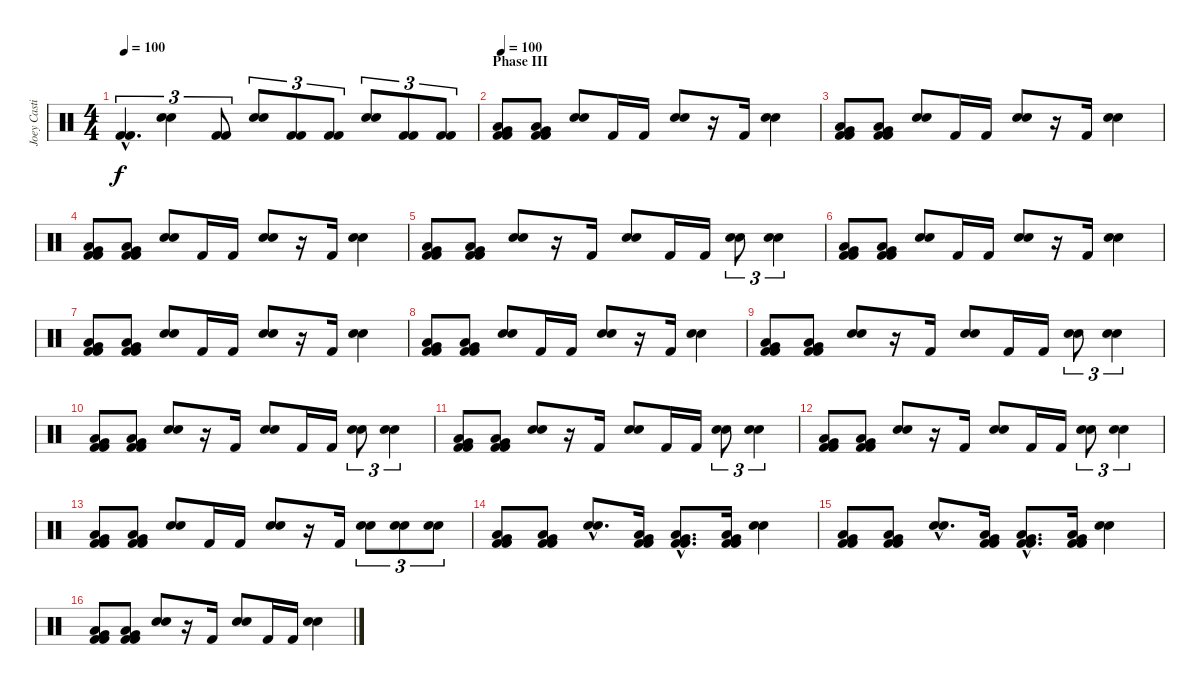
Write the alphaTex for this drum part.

\track ("Joey Castillo" "Joey Casti") {instrument percussion}
\staff {score}
\articulation defaults
\ts (4 4)
\tempo 100
\clef neutral
\ks c
("Kick (hit) 2"{hac} "Kick (hit) 2"{hac}).4{d tu (3 2) dy f} ("Electric Snare (hit)" "Electric Snare (hit)").4{tu (3 2)} ("Kick (hit) 2" "Kick (hit) 2").8{tu (3 2)} ("Electric Snare (hit)" "Electric Snare (hit)").8{tu (3 2)} ("Kick (hit) 2" "Kick (hit) 2").8{tu (3 2)} ("Kick (hit) 2" "Kick (hit) 2").8{tu (3 2)} ("Electric Snare (hit)" "Electric Snare (hit)").8{tu (3 2)} ("Kick (hit) 2" "Kick (hit) 2").8{tu (3 2)} ("Kick (hit) 2" "Kick (hit) 2").8{tu (3 2)} |
\section ("" "Phase III")
\tempo 100
("Low Floor Tom (hit)" "Very Low Tom (hit)" "Kick (hit) 2" "Kick (hit) 2").8 ("Low Floor Tom (hit)" "Very Low Tom (hit)" "Kick (hit) 2" "Kick (hit) 2").8 ("Electric Snare (hit)" "Electric Snare (hit)").8 "Kick (hit) 2".16 "Kick (hit) 2".16 ("Electric Snare (hit)" "Electric Snare (hit)").8 r.16 "Kick (hit) 2".16 ("Electric Snare (hit)" "Electric Snare (hit)").4 |
("Low Floor Tom (hit)" "Very Low Tom (hit)" "Kick (hit) 2" "Kick (hit) 2").8 ("Low Floor Tom (hit)" "Very Low Tom (hit)" "Kick (hit) 2" "Kick (hit) 2").8 ("Electric Snare (hit)" "Electric Snare (hit)").8 "Kick (hit) 2".16 "Kick (hit) 2".16 ("Electric Snare (hit)" "Electric Snare (hit)").8 r.16 "Kick (hit) 2".16 ("Electric Snare (hit)" "Electric Snare (hit)").4 |
("Low Floor Tom (hit)" "Very Low Tom (hit)" "Kick (hit) 2" "Kick (hit) 2").8 ("Low Floor Tom (hit)" "Very Low Tom (hit)" "Kick (hit) 2" "Kick (hit) 2").8 ("Electric Snare (hit)" "Electric Snare (hit)").8 "Kick (hit) 2".16 "Kick (hit) 2".16 ("Electric Snare (hit)" "Electric Snare (hit)").8 r.16 "Kick (hit) 2".16 ("Electric Snare (hit)" "Electric Snare (hit)").4 |
("Low Floor Tom (hit)" "Very Low Tom (hit)" "Kick (hit) 2" "Kick (hit) 2").8 ("Low Floor Tom (hit)" "Very Low Tom (hit)" "Kick (hit) 2" "Kick (hit) 2").8 ("Electric Snare (hit)" "Electric Snare (hit)").8 r.16 "Kick (hit) 2".16 ("Electric Snare (hit)" "Electric Snare (hit)").8 "Kick (hit) 2".16 "Kick (hit) 2".16 ("Electric Snare (hit)" "Electric Snare (hit)").8{tu (3 2)} ("Electric Snare (hit)" "Electric Snare (hit)").4{tu (3 2)} |
("Low Floor Tom (hit)" "Very Low Tom (hit)" "Kick (hit) 2" "Kick (hit) 2").8 ("Low Floor Tom (hit)" "Very Low Tom (hit)" "Kick (hit) 2" "Kick (hit) 2").8 ("Electric Snare (hit)" "Electric Snare (hit)").8 "Kick (hit) 2".16 "Kick (hit) 2".16 ("Electric Snare (hit)" "Electric Snare (hit)").8 r.16 "Kick (hit) 2".16 ("Electric Snare (hit)" "Electric Snare (hit)").4 |
("Low Floor Tom (hit)" "Very Low Tom (hit)" "Kick (hit) 2" "Kick (hit) 2").8 ("Low Floor Tom (hit)" "Very Low Tom (hit)" "Kick (hit) 2" "Kick (hit) 2").8 ("Electric Snare (hit)" "Electric Snare (hit)").8 "Kick (hit) 2".16 "Kick (hit) 2".16 ("Electric Snare (hit)" "Electric Snare (hit)").8 r.16 "Kick (hit) 2".16 ("Electric Snare (hit)" "Electric Snare (hit)").4 |
("Low Floor Tom (hit)" "Very Low Tom (hit)" "Kick (hit) 2" "Kick (hit) 2").8 ("Low Floor Tom (hit)" "Very Low Tom (hit)" "Kick (hit) 2" "Kick (hit) 2").8 ("Electric Snare (hit)" "Electric Snare (hit)").8 "Kick (hit) 2".16 "Kick (hit) 2".16 ("Electric Snare (hit)" "Electric Snare (hit)").8 r.16 "Kick (hit) 2".16 ("Electric Snare (hit)" "Electric Snare (hit)").4 |
("Low Floor Tom (hit)" "Very Low Tom (hit)" "Kick (hit) 2" "Kick (hit) 2").8 ("Low Floor Tom (hit)" "Very Low Tom (hit)" "Kick (hit) 2" "Kick (hit) 2").8 ("Electric Snare (hit)" "Electric Snare (hit)").8 r.16 "Kick (hit) 2".16 ("Electric Snare (hit)" "Electric Snare (hit)").8 "Kick (hit) 2".16 "Kick (hit) 2".16 ("Electric Snare (hit)" "Electric Snare (hit)").8{tu (3 2)} ("Electric Snare (hit)" "Electric Snare (hit)").4{tu (3 2)} |
("Low Floor Tom (hit)" "Very Low Tom (hit)" "Kick (hit) 2" "Kick (hit) 2").8 ("Low Floor Tom (hit)" "Very Low Tom (hit)" "Kick (hit) 2" "Kick (hit) 2").8 ("Electric Snare (hit)" "Electric Snare (hit)").8 r.16 "Kick (hit) 2".16 ("Electric Snare (hit)" "Electric Snare (hit)").8 "Kick (hit) 2".16 "Kick (hit) 2".16 ("Electric Snare (hit)" "Electric Snare (hit)").8{tu (3 2)} ("Electric Snare (hit)" "Electric Snare (hit)").4{tu (3 2)} |
("Low Floor Tom (hit)" "Very Low Tom (hit)" "Kick (hit) 2" "Kick (hit) 2").8 ("Low Floor Tom (hit)" "Very Low Tom (hit)" "Kick (hit) 2" "Kick (hit) 2").8 ("Electric Snare (hit)" "Electric Snare (hit)").8 r.16 "Kick (hit) 2".16 ("Electric Snare (hit)" "Electric Snare (hit)").8 "Kick (hit) 2".16 "Kick (hit) 2".16 ("Electric Snare (hit)" "Electric Snare (hit)").8{tu (3 2)} ("Electric Snare (hit)" "Electric Snare (hit)").4{tu (3 2)} |
("Low Floor Tom (hit)" "Very Low Tom (hit)" "Kick (hit) 2" "Kick (hit) 2").8 ("Low Floor Tom (hit)" "Very Low Tom (hit)" "Kick (hit) 2" "Kick (hit) 2").8 ("Electric Snare (hit)" "Electric Snare (hit)").8 r.16 "Kick (hit) 2".16 ("Electric Snare (hit)" "Electric Snare (hit)").8 "Kick (hit) 2".16 "Kick (hit) 2".16 ("Electric Snare (hit)" "Electric Snare (hit)").8{tu (3 2)} ("Electric Snare (hit)" "Electric Snare (hit)").4{tu (3 2)} |
("Low Floor Tom (hit)" "Very Low Tom (hit)" "Kick (hit) 2" "Kick (hit) 2").8 ("Low Floor Tom (hit)" "Very Low Tom (hit)" "Kick (hit) 2" "Kick (hit) 2").8 ("Electric Snare (hit)" "Electric Snare (hit)").8 "Kick (hit) 2".16 "Kick (hit) 2".16 ("Electric Snare (hit)" "Electric Snare (hit)").8 r.16 "Kick (hit) 2".16 ("Electric Snare (hit)" "Electric Snare (hit)").8{tu (3 2)} ("Electric Snare (hit)" "Electric Snare (hit)").8{tu (3 2)} ("Electric Snare (hit)" "Electric Snare (hit)").8{tu (3 2)} |
("Low Floor Tom (hit)" "Very Low Tom (hit)" "Kick (hit) 2" "Kick (hit) 2").8 ("Low Floor Tom (hit)" "Very Low Tom (hit)" "Kick (hit) 2" "Kick (hit) 2").8 ("Electric Snare (hit)"{hac} "Electric Snare (hit)"{hac}).8{d} ("Low Floor Tom (hit)" "Very Low Tom (hit)" "Kick (hit) 2" "Kick (hit) 2").16 ("Low Floor Tom (hit)"{hac} "Very Low Tom (hit)"{hac} "Kick (hit) 2"{hac} "Kick (hit) 2"{hac}).8{d} ("Low Floor Tom (hit)" "Very Low Tom (hit)" "Kick (hit) 2" "Kick (hit) 2").16 ("Electric Snare (hit)" "Electric Snare (hit)").4 |
("Low Floor Tom (hit)" "Very Low Tom (hit)" "Kick (hit) 2" "Kick (hit) 2").8 ("Low Floor Tom (hit)" "Very Low Tom (hit)" "Kick (hit) 2" "Kick (hit) 2").8 ("Electric Snare (hit)"{hac} "Electric Snare (hit)"{hac}).8{d} ("Low Floor Tom (hit)" "Very Low Tom (hit)" "Kick (hit) 2" "Kick (hit) 2").16 ("Low Floor Tom (hit)"{hac} "Very Low Tom (hit)"{hac} "Kick (hit) 2"{hac} "Kick (hit) 2"{hac}).8{d} ("Low Floor Tom (hit)" "Very Low Tom (hit)" "Kick (hit) 2" "Kick (hit) 2").16 ("Electric Snare (hit)" "Electric Snare (hit)").4 |
("Low Floor Tom (hit)" "Very Low Tom (hit)" "Kick (hit) 2" "Kick (hit) 2").8 ("Low Floor Tom (hit)" "Very Low Tom (hit)" "Kick (hit) 2" "Kick (hit) 2").8 ("Electric Snare (hit)" "Electric Snare (hit)").8 r.16 "Kick (hit) 2".16 ("Electric Snare (hit)" "Electric Snare (hit)").8 "Kick (hit) 2".16 "Kick (hit) 2".16 ("Electric Snare (hit)" "Electric Snare (hit)").4
